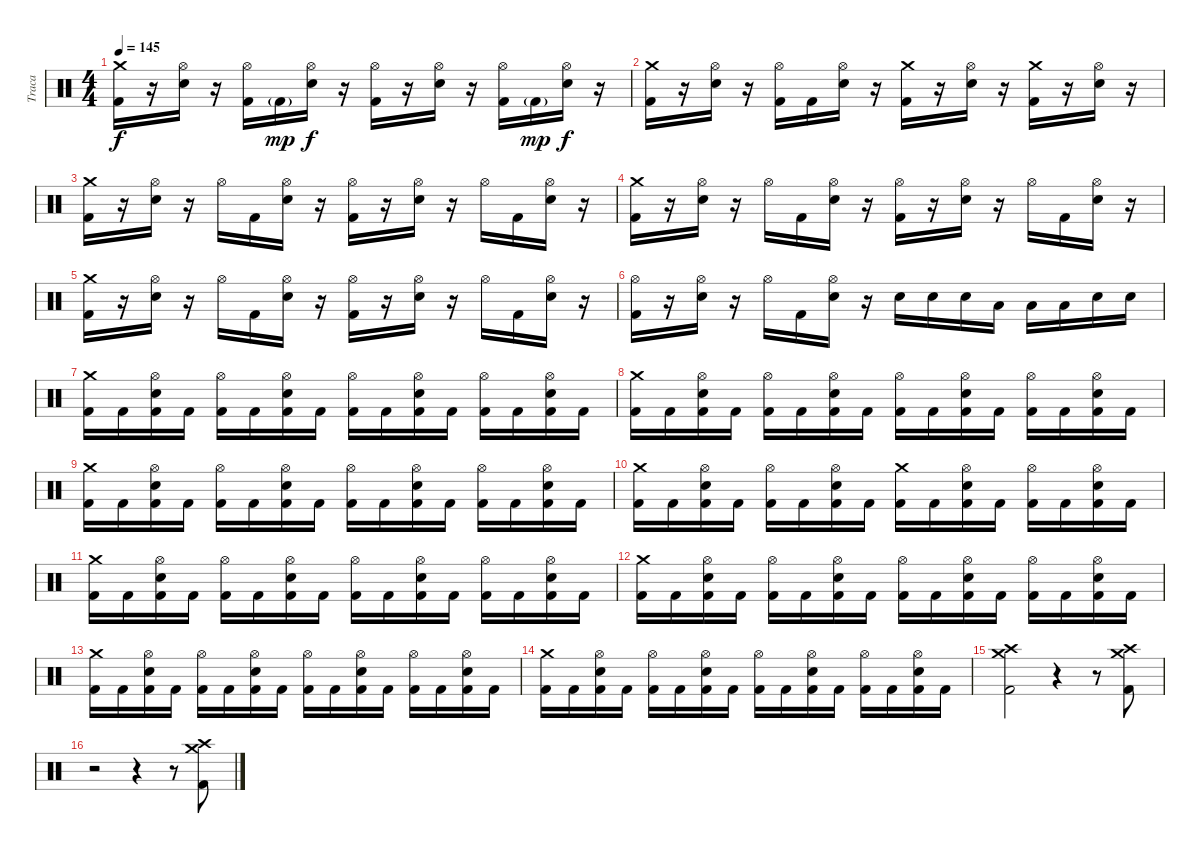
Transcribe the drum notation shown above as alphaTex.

\track ("Traca" "Traca") {instrument percussion}
\staff {score}
\articulation defaults
\ts (4 4)
\tempo 145
\clef neutral
\ks c
("Crash medium (hit)" "Kick (hit) 2").16{dy f} r.16 ("Hi-Hat (open)" "Snare (hit) 2").16 r.16 ("Hi-Hat (open)" "Kick (hit) 2").16 "Kick (hit) 2"{g}.16{dy mp} ("Hi-Hat (open)" "Snare (hit) 2").16{dy f} r.16 ("Hi-Hat (open)" "Kick (hit) 2").16 r.16 ("Hi-Hat (open)" "Snare (hit) 2").16 r.16 ("Hi-Hat (open)" "Kick (hit) 2").16 "Kick (hit) 2"{g}.16{dy mp} ("Hi-Hat (open)" "Snare (hit) 2").16{dy f} r.16 |
("Crash medium (hit)" "Kick (hit) 2").16 r.16 ("Hi-Hat (open)" "Snare (hit) 2").16 r.16 ("Hi-Hat (open)" "Kick (hit) 2").16 "Kick (hit) 2".16 ("Hi-Hat (open)" "Snare (hit) 2").16 r.16 ("Crash medium (hit)" "Kick (hit) 2").16 r.16 ("Hi-Hat (open)" "Snare (hit) 2").16 r.16 ("Crash medium (hit)" "Kick (hit) 2").16 r.16 ("Hi-Hat (open)" "Snare (hit) 2").16 r.16 |
("Crash medium (hit)" "Kick (hit) 2").16 r.16 ("Hi-Hat (open)" "Snare (hit) 2").16 r.16 "Hi-Hat (open)".16 "Kick (hit) 2".16 ("Hi-Hat (open)" "Snare (hit) 2").16 r.16 ("Hi-Hat (open)" "Kick (hit) 2").16 r.16 ("Hi-Hat (open)" "Snare (hit) 2").16 r.16 "Hi-Hat (open)".16 "Kick (hit) 2".16 ("Hi-Hat (open)" "Snare (hit) 2").16 r.16 |
("Crash medium (hit)" "Kick (hit) 2").16 r.16 ("Hi-Hat (open)" "Snare (hit) 2").16 r.16 "Hi-Hat (open)".16 "Kick (hit) 2".16 ("Hi-Hat (open)" "Snare (hit) 2").16 r.16 ("Hi-Hat (open)" "Kick (hit) 2").16 r.16 ("Hi-Hat (open)" "Snare (hit) 2").16 r.16 "Hi-Hat (open)".16 "Kick (hit) 2".16 ("Hi-Hat (open)" "Snare (hit) 2").16 r.16 |
("Crash medium (hit)" "Kick (hit) 2").16 r.16 ("Hi-Hat (open)" "Snare (hit) 2").16 r.16 "Hi-Hat (open)".16 "Kick (hit) 2".16 ("Hi-Hat (open)" "Snare (hit) 2").16 r.16 ("Hi-Hat (open)" "Kick (hit) 2").16 r.16 ("Hi-Hat (open)" "Snare (hit) 2").16 r.16 "Hi-Hat (open)".16 "Kick (hit) 2".16 ("Hi-Hat (open)" "Snare (hit) 2").16 r.16 |
("Hi-Hat (open)" "Kick (hit) 2").16 r.16 ("Hi-Hat (open)" "Snare (hit) 2").16 r.16 "Hi-Hat (open)".16 "Kick (hit) 2".16 ("Hi-Hat (open)" "Snare (hit) 2").16 r.16 "Snare (hit) 2".16 "Snare (hit) 2".16 "Snare (hit) 2".16 "Low Tom (hit)".16 "Low Tom (hit)".16 "Low Tom (hit)".16 "Snare (hit) 2".16 "Snare (hit) 2".16 |
("Crash medium (hit)" "Kick (hit) 2").16 "Kick (hit) 2".16 ("Hi-Hat (open)" "Snare (hit) 2" "Kick (hit) 2").16 "Kick (hit) 2".16 ("Hi-Hat (open)" "Kick (hit) 2").16 "Kick (hit) 2".16 ("Hi-Hat (open)" "Snare (hit) 2" "Kick (hit) 2").16 "Kick (hit) 2".16 ("Hi-Hat (open)" "Kick (hit) 2").16 "Kick (hit) 2".16 ("Hi-Hat (open)" "Snare (hit) 2" "Kick (hit) 2").16 "Kick (hit) 2".16 ("Hi-Hat (open)" "Kick (hit) 2").16 "Kick (hit) 2".16 ("Hi-Hat (open)" "Snare (hit) 2" "Kick (hit) 2").16 "Kick (hit) 2".16 |
("Crash medium (hit)" "Kick (hit) 2").16 "Kick (hit) 2".16 ("Hi-Hat (open)" "Snare (hit) 2" "Kick (hit) 2").16 "Kick (hit) 2".16 ("Hi-Hat (open)" "Kick (hit) 2").16 "Kick (hit) 2".16 ("Hi-Hat (open)" "Snare (hit) 2" "Kick (hit) 2").16 "Kick (hit) 2".16 ("Hi-Hat (open)" "Kick (hit) 2").16 "Kick (hit) 2".16 ("Hi-Hat (open)" "Snare (hit) 2" "Kick (hit) 2").16 "Kick (hit) 2".16 ("Hi-Hat (open)" "Kick (hit) 2").16 "Kick (hit) 2".16 ("Hi-Hat (open)" "Snare (hit) 2" "Kick (hit) 2").16 "Kick (hit) 2".16 |
("Crash medium (hit)" "Kick (hit) 2").16 "Kick (hit) 2".16 ("Hi-Hat (open)" "Snare (hit) 2" "Kick (hit) 2").16 "Kick (hit) 2".16 ("Hi-Hat (open)" "Kick (hit) 2").16 "Kick (hit) 2".16 ("Hi-Hat (open)" "Snare (hit) 2" "Kick (hit) 2").16 "Kick (hit) 2".16 ("Hi-Hat (open)" "Kick (hit) 2").16 "Kick (hit) 2".16 ("Hi-Hat (open)" "Snare (hit) 2" "Kick (hit) 2").16 "Kick (hit) 2".16 ("Hi-Hat (open)" "Kick (hit) 2").16 "Kick (hit) 2".16 ("Hi-Hat (open)" "Snare (hit) 2" "Kick (hit) 2").16 "Kick (hit) 2".16 |
("Crash medium (hit)" "Kick (hit) 2").16 "Kick (hit) 2".16 ("Hi-Hat (open)" "Snare (hit) 2" "Kick (hit) 2").16 "Kick (hit) 2".16 ("Hi-Hat (open)" "Kick (hit) 2").16 "Kick (hit) 2".16 ("Hi-Hat (open)" "Snare (hit) 2" "Kick (hit) 2").16 "Kick (hit) 2".16 ("Crash medium (hit)" "Kick (hit) 2").16 "Kick (hit) 2".16 ("Hi-Hat (open)" "Snare (hit) 2" "Kick (hit) 2").16 "Kick (hit) 2".16 ("Hi-Hat (open)" "Kick (hit) 2").16 "Kick (hit) 2".16 ("Hi-Hat (open)" "Snare (hit) 2" "Kick (hit) 2").16 "Kick (hit) 2".16 |
("Crash medium (hit)" "Kick (hit) 2").16 "Kick (hit) 2".16 ("Hi-Hat (open)" "Snare (hit) 2" "Kick (hit) 2").16 "Kick (hit) 2".16 ("Hi-Hat (open)" "Kick (hit) 2").16 "Kick (hit) 2".16 ("Hi-Hat (open)" "Snare (hit) 2" "Kick (hit) 2").16 "Kick (hit) 2".16 ("Hi-Hat (open)" "Kick (hit) 2").16 "Kick (hit) 2".16 ("Hi-Hat (open)" "Snare (hit) 2" "Kick (hit) 2").16 "Kick (hit) 2".16 ("Hi-Hat (open)" "Kick (hit) 2").16 "Kick (hit) 2".16 ("Hi-Hat (open)" "Snare (hit) 2" "Kick (hit) 2").16 "Kick (hit) 2".16 |
("Crash medium (hit)" "Kick (hit) 2").16 "Kick (hit) 2".16 ("Hi-Hat (open)" "Snare (hit) 2" "Kick (hit) 2").16 "Kick (hit) 2".16 ("Hi-Hat (open)" "Kick (hit) 2").16 "Kick (hit) 2".16 ("Hi-Hat (open)" "Snare (hit) 2" "Kick (hit) 2").16 "Kick (hit) 2".16 ("Hi-Hat (open)" "Kick (hit) 2").16 "Kick (hit) 2".16 ("Hi-Hat (open)" "Snare (hit) 2" "Kick (hit) 2").16 "Kick (hit) 2".16 ("Hi-Hat (open)" "Kick (hit) 2").16 "Kick (hit) 2".16 ("Hi-Hat (open)" "Snare (hit) 2" "Kick (hit) 2").16 "Kick (hit) 2".16 |
("Crash medium (hit)" "Kick (hit) 2").16 "Kick (hit) 2".16 ("Hi-Hat (open)" "Snare (hit) 2" "Kick (hit) 2").16 "Kick (hit) 2".16 ("Hi-Hat (open)" "Kick (hit) 2").16 "Kick (hit) 2".16 ("Hi-Hat (open)" "Snare (hit) 2" "Kick (hit) 2").16 "Kick (hit) 2".16 ("Hi-Hat (open)" "Kick (hit) 2").16 "Kick (hit) 2".16 ("Hi-Hat (open)" "Snare (hit) 2" "Kick (hit) 2").16 "Kick (hit) 2".16 ("Hi-Hat (open)" "Kick (hit) 2").16 "Kick (hit) 2".16 ("Hi-Hat (open)" "Snare (hit) 2" "Kick (hit) 2").16 "Kick (hit) 2".16 |
("Crash medium (hit)" "Kick (hit) 2").16 "Kick (hit) 2".16 ("Hi-Hat (open)" "Snare (hit) 2" "Kick (hit) 2").16 "Kick (hit) 2".16 ("Hi-Hat (open)" "Kick (hit) 2").16 "Kick (hit) 2".16 ("Hi-Hat (open)" "Snare (hit) 2" "Kick (hit) 2").16 "Kick (hit) 2".16 ("Hi-Hat (open)" "Kick (hit) 2").16 "Kick (hit) 2".16 ("Hi-Hat (open)" "Snare (hit) 2" "Kick (hit) 2").16 "Kick (hit) 2".16 ("Hi-Hat (open)" "Kick (hit) 2").16 "Kick (hit) 2".16 ("Hi-Hat (open)" "Snare (hit) 2" "Kick (hit) 2").16 "Kick (hit) 2".16 |
("Crash high (hit)" "Crash medium (hit)" "Kick (hit) 2").2 r.4 r.8 ("Crash high (hit)" "Crash medium (hit)" "Kick (hit) 2").8 |
r.2 r.4 r.8 ("Crash high (hit)" "Crash medium (hit)" "Kick (hit) 2").8
